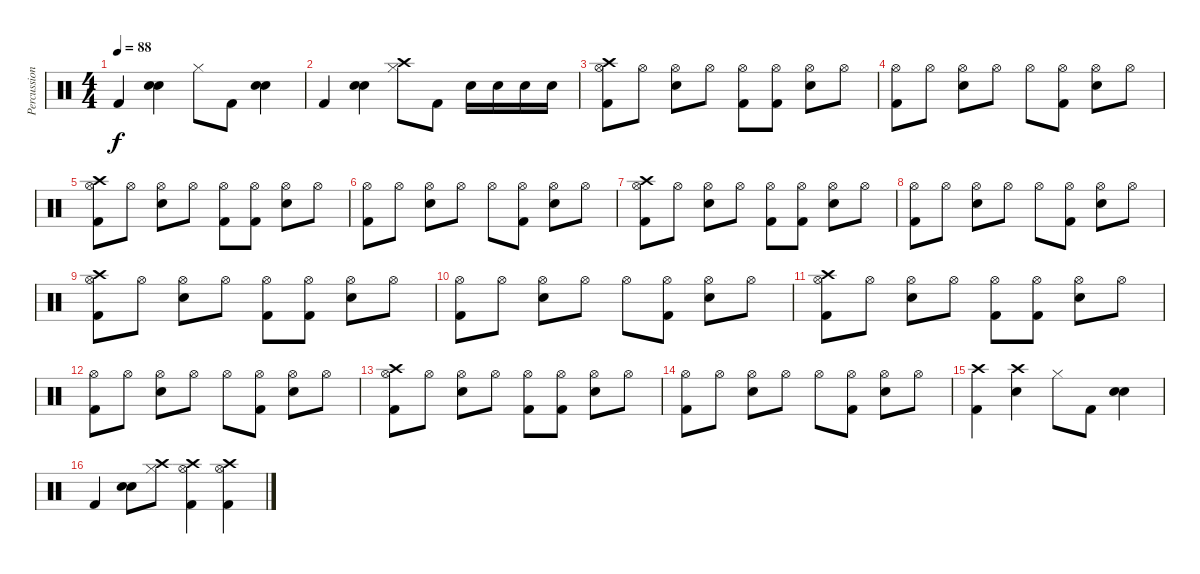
\track ("Percussion" "Percussion") {instrument percussion}
\staff {score}
\articulation defaults
\ts (4 4)
\tempo 88
\clef neutral
\ks c "Kick (hit) 2".4{dy f}
("Snare (hit) 2" "Snare (hit) 2").4 "Hi-Hat (closed)".8 "Kick (hit) 2".8 ("Snare (hit) 2" "Snare (hit) 2").4 |
"Kick (hit) 2".4 ("Snare (hit) 2" "Snare (hit) 2").4 ("Crash high (hit)" "Hi-Hat (closed)").8 "Kick (hit) 2".8 "Snare (hit) 2".16 "Snare (hit) 2".16 "Snare (hit) 2".16 "Snare (hit) 2".16 |
("Crash high (hit)" "Hi-Hat (open)" "Kick (hit) 2").8 "Hi-Hat (open)".8 ("Hi-Hat (open)" "Snare (hit) 2").8 "Hi-Hat (open)".8 ("Hi-Hat (open)" "Kick (hit) 2").8 ("Hi-Hat (open)" "Kick (hit) 2").8 ("Hi-Hat (open)" "Snare (hit) 2").8 "Hi-Hat (open)".8 |
("Hi-Hat (open)" "Kick (hit) 2").8 "Hi-Hat (open)".8 ("Hi-Hat (open)" "Snare (hit) 2").8 "Hi-Hat (open)".8 "Hi-Hat (open)".8 ("Hi-Hat (open)" "Kick (hit) 2").8 ("Hi-Hat (open)" "Snare (hit) 2").8 "Hi-Hat (open)".8 |
("Crash high (hit)" "Hi-Hat (open)" "Kick (hit) 2").8 "Hi-Hat (open)".8 ("Hi-Hat (open)" "Snare (hit) 2").8 "Hi-Hat (open)".8 ("Hi-Hat (open)" "Kick (hit) 2").8 ("Hi-Hat (open)" "Kick (hit) 2").8 ("Hi-Hat (open)" "Snare (hit) 2").8 "Hi-Hat (open)".8 |
("Hi-Hat (open)" "Kick (hit) 2").8 "Hi-Hat (open)".8 ("Hi-Hat (open)" "Snare (hit) 2").8 "Hi-Hat (open)".8 "Hi-Hat (open)".8 ("Hi-Hat (open)" "Kick (hit) 2").8 ("Hi-Hat (open)" "Snare (hit) 2").8 "Hi-Hat (open)".8 |
("Crash high (hit)" "Hi-Hat (open)" "Kick (hit) 2").8 "Hi-Hat (open)".8 ("Hi-Hat (open)" "Snare (hit) 2").8 "Hi-Hat (open)".8 ("Hi-Hat (open)" "Kick (hit) 2").8 ("Hi-Hat (open)" "Kick (hit) 2").8 ("Hi-Hat (open)" "Snare (hit) 2").8 "Hi-Hat (open)".8 |
("Hi-Hat (open)" "Kick (hit) 2").8 "Hi-Hat (open)".8 ("Hi-Hat (open)" "Snare (hit) 2").8 "Hi-Hat (open)".8 "Hi-Hat (open)".8 ("Hi-Hat (open)" "Kick (hit) 2").8 ("Hi-Hat (open)" "Snare (hit) 2").8 "Hi-Hat (open)".8 |
("Crash high (hit)" "Hi-Hat (open)" "Kick (hit) 2").8 "Hi-Hat (open)".8 ("Hi-Hat (open)" "Snare (hit) 2").8 "Hi-Hat (open)".8 ("Hi-Hat (open)" "Kick (hit) 2").8 ("Hi-Hat (open)" "Kick (hit) 2").8 ("Hi-Hat (open)" "Snare (hit) 2").8 "Hi-Hat (open)".8 |
("Hi-Hat (open)" "Kick (hit) 2").8 "Hi-Hat (open)".8 ("Hi-Hat (open)" "Snare (hit) 2").8 "Hi-Hat (open)".8 "Hi-Hat (open)".8 ("Hi-Hat (open)" "Kick (hit) 2").8 ("Hi-Hat (open)" "Snare (hit) 2").8 "Hi-Hat (open)".8 |
("Crash high (hit)" "Hi-Hat (open)" "Kick (hit) 2").8 "Hi-Hat (open)".8 ("Hi-Hat (open)" "Snare (hit) 2").8 "Hi-Hat (open)".8 ("Hi-Hat (open)" "Kick (hit) 2").8 ("Hi-Hat (open)" "Kick (hit) 2").8 ("Hi-Hat (open)" "Snare (hit) 2").8 "Hi-Hat (open)".8 |
("Hi-Hat (open)" "Kick (hit) 2").8 "Hi-Hat (open)".8 ("Hi-Hat (open)" "Snare (hit) 2").8 "Hi-Hat (open)".8 "Hi-Hat (open)".8 ("Hi-Hat (open)" "Kick (hit) 2").8 ("Hi-Hat (open)" "Snare (hit) 2").8 "Hi-Hat (open)".8 |
("Crash high (hit)" "Hi-Hat (open)" "Kick (hit) 2").8 "Hi-Hat (open)".8 ("Hi-Hat (open)" "Snare (hit) 2").8 "Hi-Hat (open)".8 ("Hi-Hat (open)" "Kick (hit) 2").8 ("Hi-Hat (open)" "Kick (hit) 2").8 ("Hi-Hat (open)" "Snare (hit) 2").8 "Hi-Hat (open)".8 |
("Hi-Hat (open)" "Kick (hit) 2").8 "Hi-Hat (open)".8 ("Hi-Hat (open)" "Snare (hit) 2").8 "Hi-Hat (open)".8 "Hi-Hat (open)".8 ("Hi-Hat (open)" "Kick (hit) 2").8 ("Hi-Hat (open)" "Snare (hit) 2").8 "Hi-Hat (open)".8 |
("Crash high (hit)" "Kick (hit) 2").4 ("Crash high (hit)" "Snare (hit) 2").4 "Hi-Hat (closed)".8 "Kick (hit) 2".8 ("Snare (hit) 2" "Snare (hit) 2").4 |
"Kick (hit) 2".4 ("Snare (hit) 2" "Snare (hit) 2").8 ("Crash high (hit)" "Hi-Hat (closed)").8 ("Crash high (hit)" "Hi-Hat (open)" "Kick (hit) 2").4 ("Crash high (hit)" "Hi-Hat (open)" "Kick (hit) 2").4
